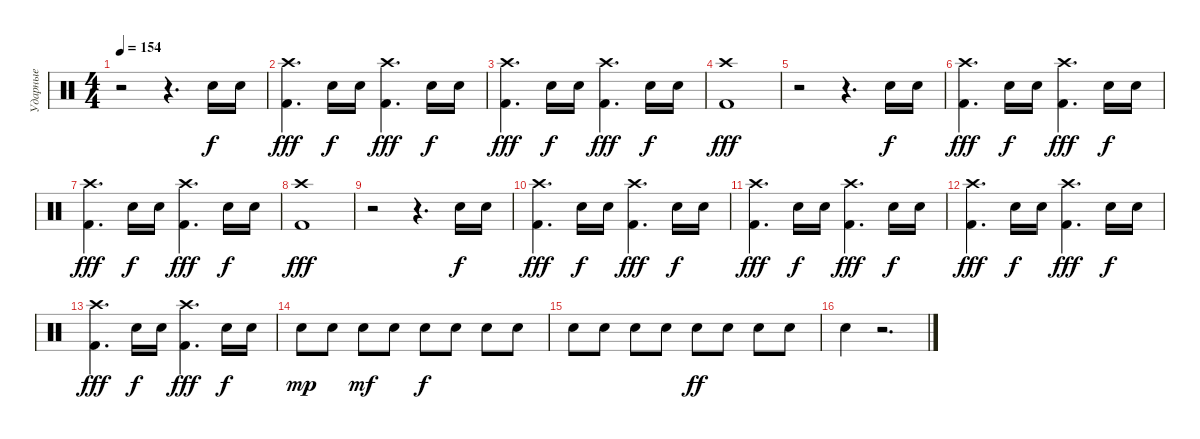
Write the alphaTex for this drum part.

\track ("Ударные" "Ударные") {instrument percussion}
\staff
\articulation defaults
\ts (4 4)
\tempo 154
\clef neutral
\ks c
r.2{dy f} r.4{d} "Snare (hit) 2".16 "Snare (hit) 2".16 |
("Kick (hit) 2" "Crash high (hit)").4{d dy fff} "Snare (hit) 2".16{dy f} "Snare (hit) 2".16 ("Kick (hit) 2" "Crash high (hit)").4{d dy fff} "Snare (hit) 2".16{dy f} "Snare (hit) 2".16 |
("Kick (hit) 2" "Crash high (hit)").4{d dy fff} "Snare (hit) 2".16{dy f} "Snare (hit) 2".16 ("Kick (hit) 2" "Crash high (hit)").4{d dy fff} "Snare (hit) 2".16{dy f} "Snare (hit) 2".16 |
("Kick (hit) 2" "Crash high (hit)").1{dy fff} |
r.2 r.4{d} "Snare (hit) 2".16{dy f} "Snare (hit) 2".16 |
("Kick (hit) 2" "Crash high (hit)").4{d dy fff} "Snare (hit) 2".16{dy f} "Snare (hit) 2".16 ("Kick (hit) 2" "Crash high (hit)").4{d dy fff} "Snare (hit) 2".16{dy f} "Snare (hit) 2".16 |
("Kick (hit) 2" "Crash high (hit)").4{d dy fff} "Snare (hit) 2".16{dy f} "Snare (hit) 2".16 ("Kick (hit) 2" "Crash high (hit)").4{d dy fff} "Snare (hit) 2".16{dy f} "Snare (hit) 2".16 |
("Kick (hit) 2" "Crash high (hit)").1{dy fff} |
r.2 r.4{d} "Snare (hit) 2".16{dy f} "Snare (hit) 2".16 |
("Kick (hit) 2" "Crash high (hit)").4{d dy fff} "Snare (hit) 2".16{dy f} "Snare (hit) 2".16 ("Kick (hit) 2" "Crash high (hit)").4{d dy fff} "Snare (hit) 2".16{dy f} "Snare (hit) 2".16 |
("Kick (hit) 2" "Crash high (hit)").4{d dy fff} "Snare (hit) 2".16{dy f} "Snare (hit) 2".16 ("Kick (hit) 2" "Crash high (hit)").4{d dy fff} "Snare (hit) 2".16{dy f} "Snare (hit) 2".16 |
("Kick (hit) 2" "Crash high (hit)").4{d dy fff} "Snare (hit) 2".16{dy f} "Snare (hit) 2".16 ("Kick (hit) 2" "Crash high (hit)").4{d dy fff} "Snare (hit) 2".16{dy f} "Snare (hit) 2".16 |
("Kick (hit) 2" "Crash high (hit)").4{d dy fff} "Snare (hit) 2".16{dy f} "Snare (hit) 2".16 ("Kick (hit) 2" "Crash high (hit)").4{d dy fff} "Snare (hit) 2".16{dy f} "Snare (hit) 2".16 |
"Snare (hit) 2".8{dy mp} "Snare (hit) 2".8 "Snare (hit) 2".8{dy mf} "Snare (hit) 2".8 "Snare (hit) 2".8{dy f} "Snare (hit) 2".8 "Snare (hit) 2".8 "Snare (hit) 2".8 |
"Snare (hit) 2".8 "Snare (hit) 2".8 "Snare (hit) 2".8 "Snare (hit) 2".8 "Snare (hit) 2".8{dy ff} "Snare (hit) 2".8 "Snare (hit) 2".8 "Snare (hit) 2".8 |
"Snare (hit) 2".4 r.2{d}
